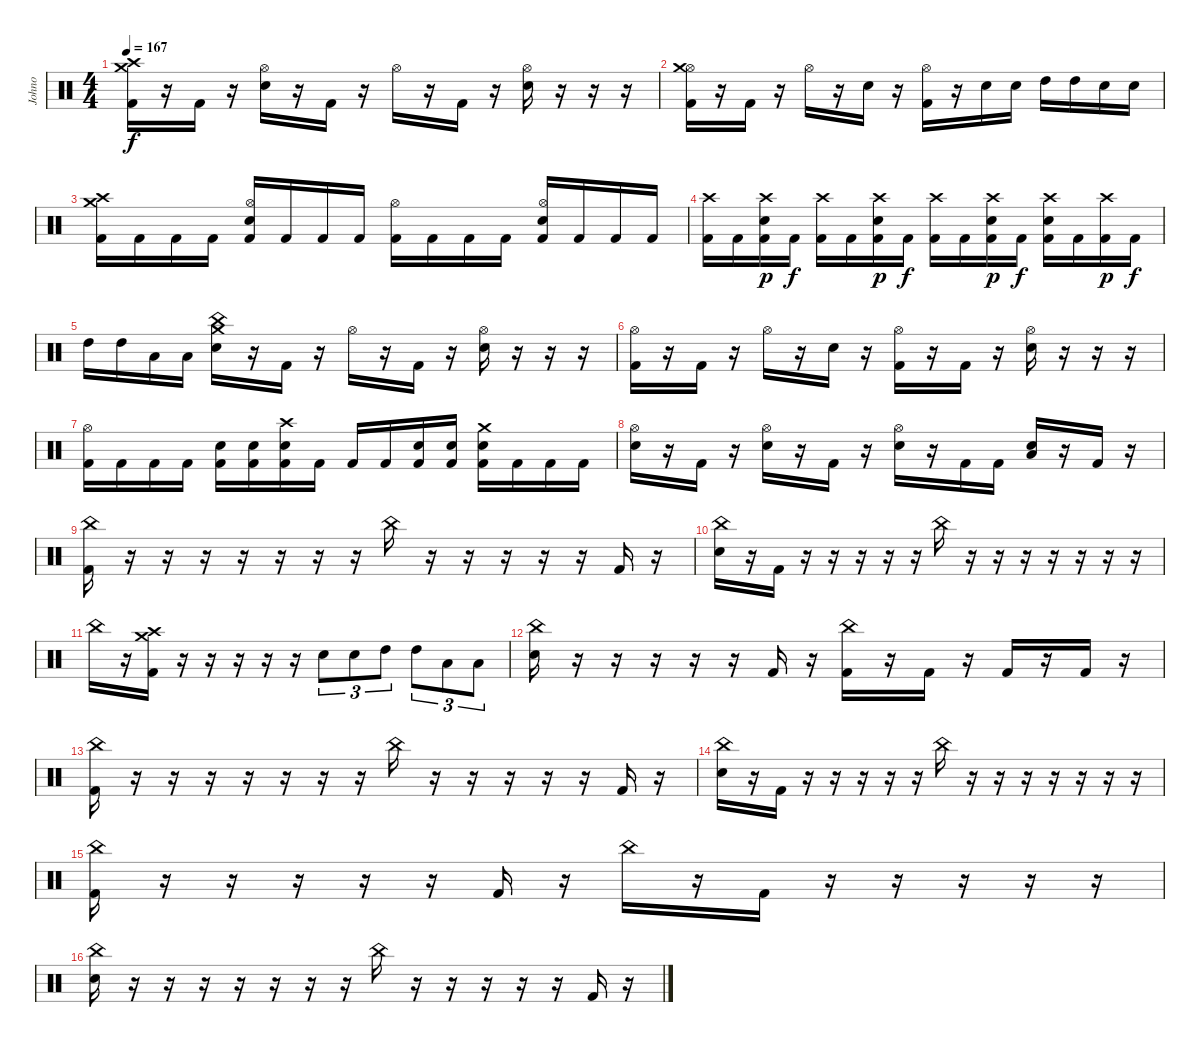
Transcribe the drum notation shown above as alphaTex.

\track ("Johno" "Johno") {instrument percussion}
\staff {score}
\articulation defaults
\ts (4 4)
\tempo 167
\clef neutral
\ks c
("Crash high (hit)" "Crash medium (hit)" "Kick (hit) 2").16{dy f} r.16 "Kick (hit) 2".16 r.16 ("Hi-Hat (open)" "Electric Snare (hit)").16 r.16 "Kick (hit) 2".16 r.16 "Hi-Hat (open)".16 r.16 "Kick (hit) 2".16 r.16 ("Hi-Hat (open)" "Electric Snare (hit)").16 r.16 r.16 r.16 |
("Hi-Hat (open)" "Crash medium (hit)" "Kick (hit) 2").16 r.16 "Kick (hit) 2".16 r.16 "Hi-Hat (open)".16 r.16 "Electric Snare (hit)".16 r.16 ("Hi-Hat (open)" "Kick (hit) 2").16 r.16 "Electric Snare (hit)".16 "Electric Snare (hit)".16 "High Tom (hit)".16 "High Tom (hit)".16 "Electric Snare (hit)".16 "Electric Snare (hit)".16 |
("Crash high (hit)" "Crash medium (hit)" "Kick (hit) 2").16 "Kick (hit) 2".16 "Kick (hit) 2".16 "Kick (hit) 2".16 ("Hi-Hat (open)" "Electric Snare (hit)" "Kick (hit) 2").16 "Kick (hit) 2".16 "Kick (hit) 2".16 "Kick (hit) 2".16 ("Hi-Hat (open)" "Kick (hit) 2").16 "Kick (hit) 2".16 "Kick (hit) 2".16 "Kick (hit) 2".16 ("Hi-Hat (open)" "Electric Snare (hit)" "Kick (hit) 2").16 "Kick (hit) 2".16 "Kick (hit) 2".16 "Kick (hit) 2".16 |
("Crash high (hit)" "Kick (hit) 2").16 "Kick (hit) 2".16 ("Crash high (hit)" "Electric Snare (hit)" "Kick (hit) 2").16{dy p} "Kick (hit) 2".16{dy f} ("Crash high (hit)" "Kick (hit) 2").16 "Kick (hit) 2".16 ("Crash high (hit)" "Electric Snare (hit)" "Kick (hit) 2").16{dy p} "Kick (hit) 2".16{dy f} ("Crash high (hit)" "Kick (hit) 2").16 "Kick (hit) 2".16 ("Crash high (hit)" "Electric Snare (hit)" "Kick (hit) 2").16{dy p} "Kick (hit) 2".16{dy f} ("Crash high (hit)" "Electric Snare (hit)" "Kick (hit) 2").16 "Kick (hit) 2".16 ("Crash high (hit)" "Kick (hit) 2").16{dy p} "Kick (hit) 2".16{dy f} |
"High Tom (hit)".16 "High Tom (hit)".16 "Low Floor Tom (hit)".16 "Low Floor Tom (hit)".16 ("Crash medium (hit)" "China (hit)" "Electric Snare (hit)").16 r.16 "Kick (hit) 2".16 r.16 "Hi-Hat (open)".16 r.16 "Kick (hit) 2".16 r.16 ("Hi-Hat (open)" "Electric Snare (hit)").16 r.16 r.16 r.16 |
("Hi-Hat (open)" "Kick (hit) 2").16 r.16 "Kick (hit) 2".16 r.16 "Hi-Hat (open)".16 r.16 "Electric Snare (hit)".16 r.16 ("Hi-Hat (open)" "Kick (hit) 2").16 r.16 "Kick (hit) 2".16 r.16 ("Hi-Hat (open)" "Electric Snare (hit)").16 r.16 r.16 r.16 |
("Hi-Hat (open)" "Kick (hit) 2").16 "Kick (hit) 2".16 "Kick (hit) 2".16 "Kick (hit) 2".16 ("Electric Snare (hit)" "Kick (hit) 2").16 ("Electric Snare (hit)" "Kick (hit) 2").16 ("Crash high (hit)" "Electric Snare (hit)" "Kick (hit) 2").16 "Kick (hit) 2".16 "Kick (hit) 2".16 "Kick (hit) 2".16 ("Electric Snare (hit)" "Kick (hit) 2").16 ("Electric Snare (hit)" "Kick (hit) 2").16 ("Crash medium (hit)" "Electric Snare (hit)" "Kick (hit) 2").16 "Kick (hit) 2".16 "Kick (hit) 2".16 "Kick (hit) 2".16 |
("Hi-Hat (open)" "Electric Snare (hit)").16 r.16 "Kick (hit) 2".16 r.16 ("Hi-Hat (open)" "Electric Snare (hit)").16 r.16 "Kick (hit) 2".16 r.16 ("Hi-Hat (open)" "Electric Snare (hit)").16 r.16 "Kick (hit) 2".16 "Kick (hit) 2".16 ("Low Floor Tom (hit)" "Electric Snare (hit)").16 r.16 "Kick (hit) 2".16 r.16 |
("China (hit)" "Kick (hit) 2").16 r.16 r.16 r.16 r.16 r.16 r.16 r.16 "China (hit)".16 r.16 r.16 r.16 r.16 r.16 "Kick (hit) 2".16 r.16 |
("China (hit)" "Electric Snare (hit)").16 r.16 "Kick (hit) 2".16 r.16 r.16 r.16 r.16 r.16 "China (hit)".16 r.16 r.16 r.16 r.16 r.16 r.16 r.16 |
"China (hit)".16 r.16 ("Crash medium (hit)" "Crash high (hit)" "Kick (hit) 2").16 r.16 r.16 r.16 r.16 r.16 "Electric Snare (hit)".8{tu (3 2)} "Electric Snare (hit)".8{tu (3 2)} "High Tom (hit)".8{tu (3 2)} "High Tom (hit)".8{tu (3 2)} "Low Floor Tom (hit)".8{tu (3 2)} "Low Floor Tom (hit)".8{tu (3 2)} |
("China (hit)" "Electric Snare (hit)").16 r.16 r.16 r.16 r.16 r.16 "Kick (hit) 2".16 r.16 ("China (hit)" "Kick (hit) 2").16 r.16 "Kick (hit) 2".16 r.16 "Kick (hit) 2".16 r.16 "Kick (hit) 2".16 r.16 |
("China (hit)" "Kick (hit) 2").16 r.16 r.16 r.16 r.16 r.16 r.16 r.16 "China (hit)".16 r.16 r.16 r.16 r.16 r.16 "Kick (hit) 2".16 r.16 |
("China (hit)" "Electric Snare (hit)").16 r.16 "Kick (hit) 2".16 r.16 r.16 r.16 r.16 r.16 "China (hit)".16 r.16 r.16 r.16 r.16 r.16 r.16 r.16 |
("China (hit)" "Kick (hit) 2").16 r.16 r.16 r.16 r.16 r.16 "Kick (hit) 2".16 r.16 "China (hit)".16 r.16 "Kick (hit) 2".16 r.16 r.16 r.16 r.16 r.16 |
("China (hit)" "Electric Snare (hit)").16 r.16 r.16 r.16 r.16 r.16 r.16 r.16 "China (hit)".16 r.16 r.16 r.16 r.16 r.16 "Kick (hit) 2".16 r.16
